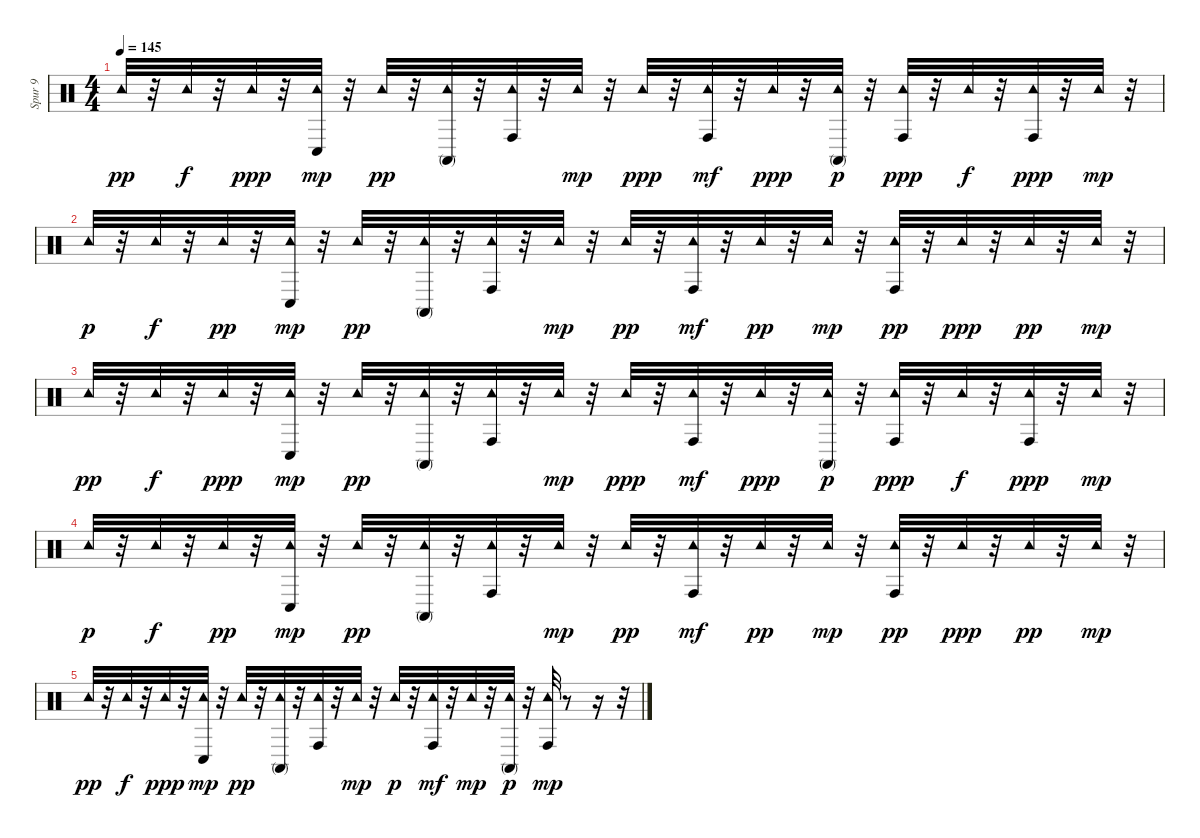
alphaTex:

\track ("Spur 9" "Spur 9") {instrument percussion}
\staff {score}
\articulation defaults
\ts (4 4)
\tempo 145
\clef neutral
\ks c "Tambourine (hit)".32{dy pp}
r.32 "Tambourine (hit)".32{dy f} r.32 "Tambourine (hit)".32{dy ppp} r.32 ("Tambourine (hit)" "Conga low (hit)").32{dy mp} r.32 "Tambourine (hit)".32{dy pp} r.32 ("Tambourine (hit)" "Conga high (mute)").32 r.32 ("Conga high (hit)" "Tambourine (hit)").32 r.32 "Tambourine (hit)".32{dy mp} r.32 "Tambourine (hit)".32{dy ppp} r.32 ("Tambourine (hit)" "Conga high (hit)").32{dy mf} r.32 "Tambourine (hit)".32{dy ppp} r.32 ("Tambourine (hit)" "Conga high (mute)").32{dy p} r.32 ("Conga high (hit)" "Tambourine (hit)").32{dy ppp} r.32 "Tambourine (hit)".32{dy f} r.32 ("Conga high (hit)" "Tambourine (hit)").32{dy ppp} r.32 "Tambourine (hit)".32{dy mp} r.32 |
"Tambourine (hit)".32{dy p} r.32 "Tambourine (hit)".32{dy f} r.32 "Tambourine (hit)".32{dy pp} r.32 ("Tambourine (hit)" "Conga low (hit)").32{dy mp} r.32 "Tambourine (hit)".32{dy pp} r.32 ("Tambourine (hit)" "Conga high (mute)").32 r.32 ("Conga high (hit)" "Tambourine (hit)").32 r.32 "Tambourine (hit)".32{dy mp} r.32 "Tambourine (hit)".32{dy pp} r.32 ("Tambourine (hit)" "Conga high (hit)").32{dy mf} r.32 "Tambourine (hit)".32{dy pp} r.32 "Tambourine (hit)".32{dy mp} r.32 ("Conga high (hit)" "Tambourine (hit)").32{dy pp} r.32 "Tambourine (hit)".32{dy ppp} r.32 "Tambourine (hit)".32{dy pp} r.32 "Tambourine (hit)".32{dy mp} r.32 |
"Tambourine (hit)".32{dy pp} r.32 "Tambourine (hit)".32{dy f} r.32 "Tambourine (hit)".32{dy ppp} r.32 ("Tambourine (hit)" "Conga low (hit)").32{dy mp} r.32 "Tambourine (hit)".32{dy pp} r.32 ("Tambourine (hit)" "Conga high (mute)").32 r.32 ("Conga high (hit)" "Tambourine (hit)").32 r.32 "Tambourine (hit)".32{dy mp} r.32 "Tambourine (hit)".32{dy ppp} r.32 ("Tambourine (hit)" "Conga high (hit)").32{dy mf} r.32 "Tambourine (hit)".32{dy ppp} r.32 ("Tambourine (hit)" "Conga high (mute)").32{dy p} r.32 ("Conga high (hit)" "Tambourine (hit)").32{dy ppp} r.32 "Tambourine (hit)".32{dy f} r.32 ("Conga high (hit)" "Tambourine (hit)").32{dy ppp} r.32 "Tambourine (hit)".32{dy mp} r.32 |
"Tambourine (hit)".32{dy p} r.32 "Tambourine (hit)".32{dy f} r.32 "Tambourine (hit)".32{dy pp} r.32 ("Tambourine (hit)" "Conga low (hit)").32{dy mp} r.32 "Tambourine (hit)".32{dy pp} r.32 ("Tambourine (hit)" "Conga high (mute)").32 r.32 ("Conga high (hit)" "Tambourine (hit)").32 r.32 "Tambourine (hit)".32{dy mp} r.32 "Tambourine (hit)".32{dy pp} r.32 ("Tambourine (hit)" "Conga high (hit)").32{dy mf} r.32 "Tambourine (hit)".32{dy pp} r.32 "Tambourine (hit)".32{dy mp} r.32 ("Conga high (hit)" "Tambourine (hit)").32{dy pp} r.32 "Tambourine (hit)".32{dy ppp} r.32 "Tambourine (hit)".32{dy pp} r.32 "Tambourine (hit)".32{dy mp} r.32 |
"Tambourine (hit)".32{dy pp} r.32 "Tambourine (hit)".32{dy f} r.32 "Tambourine (hit)".32{dy ppp} r.32 ("Tambourine (hit)" "Conga low (hit)").32{dy mp} r.32 "Tambourine (hit)".32{dy pp} r.32 ("Tambourine (hit)" "Conga high (mute)").32 r.32 ("Conga high (hit)" "Tambourine (hit)").32 r.32 "Tambourine (hit)".32{dy mp} r.32 "Tambourine (hit)".32{dy p} r.32 ("Tambourine (hit)" "Conga high (hit)").32{dy mf} r.32 "Tambourine (hit)".32{dy mp} r.32 ("Tambourine (hit)" "Conga high (mute)").32{dy p} r.32 ("Conga high (hit)" "Tambourine (hit)").32{dy mp} r.8 r.16 r.32
